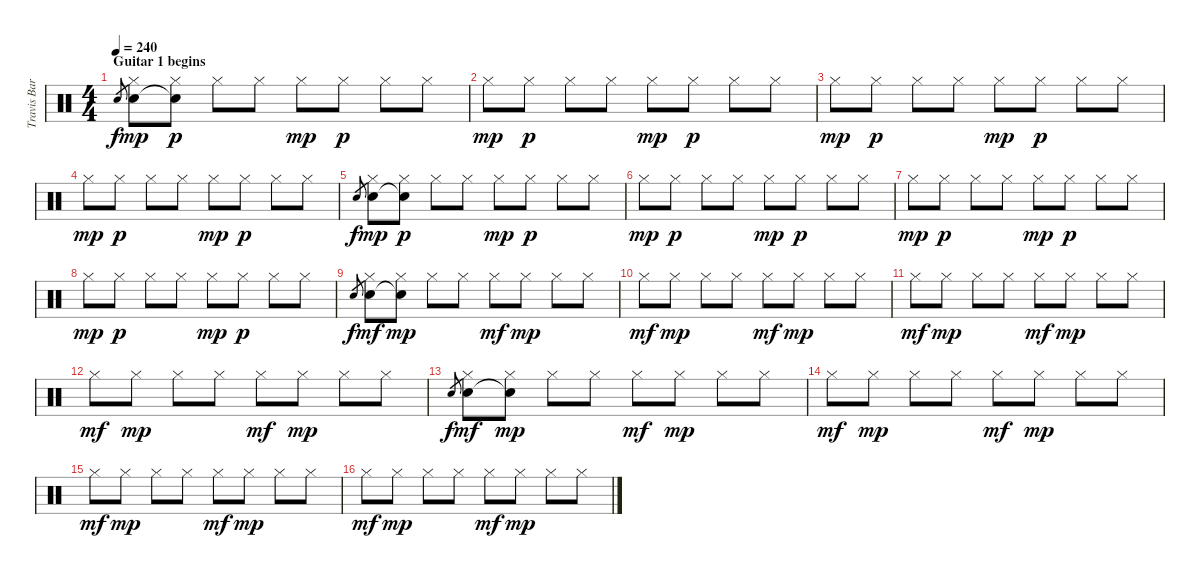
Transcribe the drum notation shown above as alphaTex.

\track ("Travis Barker - Drums 2" "Travis Bar") {instrument percussion}
\staff {score}
\articulation defaults
\ts (4 4)
\section ("" "Guitar 1 begins")
\tempo 240
\clef neutral
\ks c "Electric Snare (hit)".8{gr dy f}
("Hi-Hat (closed)" "Electric Snare (hit)").8{dy mp} ("Hi-Hat (closed)" "Snare (hit)"{t}).8{dy p} "Hi-Hat (closed)".8 "Hi-Hat (closed)".8 "Hi-Hat (closed)".8{dy mp} "Hi-Hat (closed)".8{dy p} "Hi-Hat (closed)".8 "Hi-Hat (closed)".8 |
"Hi-Hat (closed)".8{dy mp} "Hi-Hat (closed)".8{dy p} "Hi-Hat (closed)".8 "Hi-Hat (closed)".8 "Hi-Hat (closed)".8{dy mp} "Hi-Hat (closed)".8{dy p} "Hi-Hat (closed)".8 "Hi-Hat (closed)".8 |
"Hi-Hat (closed)".8{dy mp} "Hi-Hat (closed)".8{dy p} "Hi-Hat (closed)".8 "Hi-Hat (closed)".8 "Hi-Hat (closed)".8{dy mp} "Hi-Hat (closed)".8{dy p} "Hi-Hat (closed)".8 "Hi-Hat (closed)".8 |
"Hi-Hat (closed)".8{dy mp} "Hi-Hat (closed)".8{dy p} "Hi-Hat (closed)".8 "Hi-Hat (closed)".8 "Hi-Hat (closed)".8{dy mp} "Hi-Hat (closed)".8{dy p} "Hi-Hat (closed)".8 "Hi-Hat (closed)".8 |
"Electric Snare (hit)".8{gr dy f} ("Hi-Hat (closed)" "Electric Snare (hit)").8{dy mp} ("Hi-Hat (closed)" "Snare (hit)"{t}).8{dy p} "Hi-Hat (closed)".8 "Hi-Hat (closed)".8 "Hi-Hat (closed)".8{dy mp} "Hi-Hat (closed)".8{dy p} "Hi-Hat (closed)".8 "Hi-Hat (closed)".8 |
"Hi-Hat (closed)".8{dy mp} "Hi-Hat (closed)".8{dy p} "Hi-Hat (closed)".8 "Hi-Hat (closed)".8 "Hi-Hat (closed)".8{dy mp} "Hi-Hat (closed)".8{dy p} "Hi-Hat (closed)".8 "Hi-Hat (closed)".8 |
"Hi-Hat (closed)".8{dy mp} "Hi-Hat (closed)".8{dy p} "Hi-Hat (closed)".8 "Hi-Hat (closed)".8 "Hi-Hat (closed)".8{dy mp} "Hi-Hat (closed)".8{dy p} "Hi-Hat (closed)".8 "Hi-Hat (closed)".8 |
"Hi-Hat (closed)".8{dy mp} "Hi-Hat (closed)".8{dy p} "Hi-Hat (closed)".8 "Hi-Hat (closed)".8 "Hi-Hat (closed)".8{dy mp} "Hi-Hat (closed)".8{dy p} "Hi-Hat (closed)".8 "Hi-Hat (closed)".8 |
"Electric Snare (hit)".8{gr dy f} ("Hi-Hat (closed)" "Electric Snare (hit)").8{dy mf} ("Hi-Hat (closed)" "Snare (hit)"{t}).8{dy mp} "Hi-Hat (closed)".8 "Hi-Hat (closed)".8 "Hi-Hat (closed)".8{dy mf} "Hi-Hat (closed)".8{dy mp} "Hi-Hat (closed)".8 "Hi-Hat (closed)".8 |
"Hi-Hat (closed)".8{dy mf} "Hi-Hat (closed)".8{dy mp} "Hi-Hat (closed)".8 "Hi-Hat (closed)".8 "Hi-Hat (closed)".8{dy mf} "Hi-Hat (closed)".8{dy mp} "Hi-Hat (closed)".8 "Hi-Hat (closed)".8 |
"Hi-Hat (closed)".8{dy mf} "Hi-Hat (closed)".8{dy mp} "Hi-Hat (closed)".8 "Hi-Hat (closed)".8 "Hi-Hat (closed)".8{dy mf} "Hi-Hat (closed)".8{dy mp} "Hi-Hat (closed)".8 "Hi-Hat (closed)".8 |
"Hi-Hat (closed)".8{dy mf} "Hi-Hat (closed)".8{dy mp} "Hi-Hat (closed)".8 "Hi-Hat (closed)".8 "Hi-Hat (closed)".8{dy mf} "Hi-Hat (closed)".8{dy mp} "Hi-Hat (closed)".8 "Hi-Hat (closed)".8 |
"Electric Snare (hit)".8{gr dy f} ("Hi-Hat (closed)" "Electric Snare (hit)").8{dy mf} ("Hi-Hat (closed)" "Snare (hit)"{t}).8{dy mp} "Hi-Hat (closed)".8 "Hi-Hat (closed)".8 "Hi-Hat (closed)".8{dy mf} "Hi-Hat (closed)".8{dy mp} "Hi-Hat (closed)".8 "Hi-Hat (closed)".8 |
"Hi-Hat (closed)".8{dy mf} "Hi-Hat (closed)".8{dy mp} "Hi-Hat (closed)".8 "Hi-Hat (closed)".8 "Hi-Hat (closed)".8{dy mf} "Hi-Hat (closed)".8{dy mp} "Hi-Hat (closed)".8 "Hi-Hat (closed)".8 |
"Hi-Hat (closed)".8{dy mf} "Hi-Hat (closed)".8{dy mp} "Hi-Hat (closed)".8 "Hi-Hat (closed)".8 "Hi-Hat (closed)".8{dy mf} "Hi-Hat (closed)".8{dy mp} "Hi-Hat (closed)".8 "Hi-Hat (closed)".8 |
"Hi-Hat (closed)".8{dy mf} "Hi-Hat (closed)".8{dy mp} "Hi-Hat (closed)".8 "Hi-Hat (closed)".8 "Hi-Hat (closed)".8{dy mf} "Hi-Hat (closed)".8{dy mp} "Hi-Hat (closed)".8 "Hi-Hat (closed)".8
